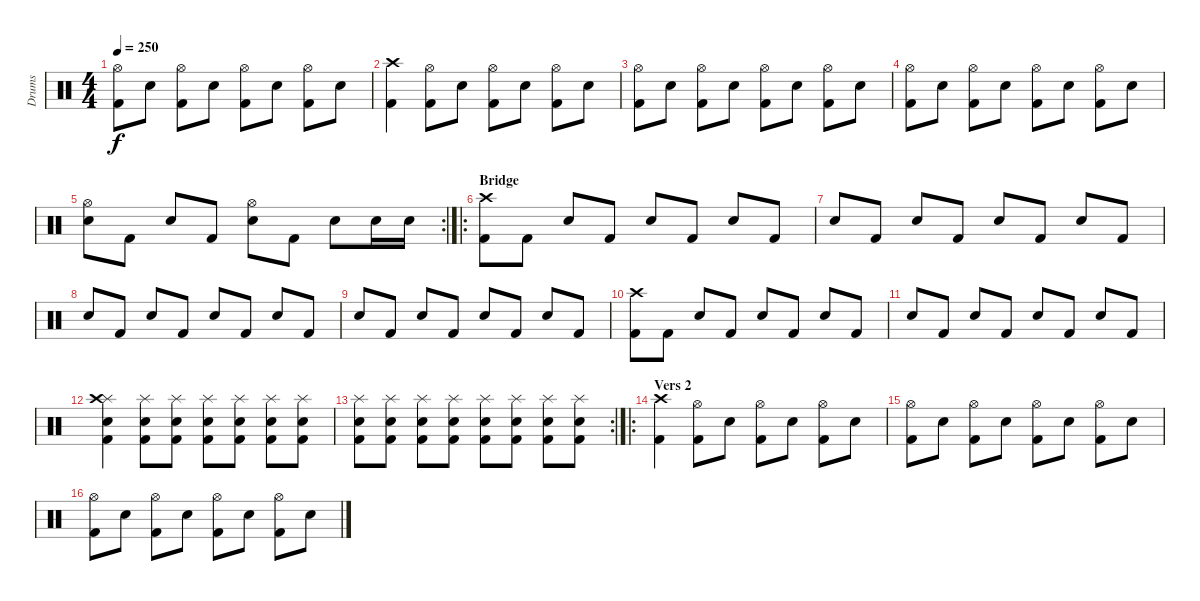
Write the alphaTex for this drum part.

\track ("Drums" "Drums") {instrument percussion}
\staff {score}
\articulation defaults
\ts (4 4)
\tempo 250
\clef neutral
\ks c
("Hi-Hat (open)" "Kick (hit) 2").8{dy f} "Snare (hit) 2".8 ("Hi-Hat (open)" "Kick (hit) 2").8 "Snare (hit) 2".8 ("Hi-Hat (open)" "Kick (hit) 2").8 "Snare (hit) 2".8 ("Hi-Hat (open)" "Kick (hit) 2").8 "Snare (hit) 2".8 |
("Crash high (hit)" "Kick (hit) 2").4 ("Hi-Hat (open)" "Kick (hit) 2").8 "Snare (hit) 2".8 ("Hi-Hat (open)" "Kick (hit) 2").8 "Snare (hit) 2".8 ("Hi-Hat (open)" "Kick (hit) 2").8 "Snare (hit) 2".8 |
("Hi-Hat (open)" "Kick (hit) 2").8 "Snare (hit) 2".8 ("Hi-Hat (open)" "Kick (hit) 2").8 "Snare (hit) 2".8 ("Hi-Hat (open)" "Kick (hit) 2").8 "Snare (hit) 2".8 ("Hi-Hat (open)" "Kick (hit) 2").8 "Snare (hit) 2".8 |
("Hi-Hat (open)" "Kick (hit) 2").8 "Snare (hit) 2".8 ("Hi-Hat (open)" "Kick (hit) 2").8 "Snare (hit) 2".8 ("Hi-Hat (open)" "Kick (hit) 2").8 "Snare (hit) 2".8 ("Hi-Hat (open)" "Kick (hit) 2").8 "Snare (hit) 2".8 |
\rc 2
("Hi-Hat (open)" "Snare (hit) 2").8 "Kick (hit) 2".8 "Snare (hit) 2".8 "Kick (hit) 2".8 ("Hi-Hat (open)" "Snare (hit) 2").8 "Kick (hit) 2".8 "Snare (hit) 2".8 "Snare (hit) 2".16 "Snare (hit) 2".16 |
\ro
\section ("" "Bridge")
("Kick (hit) 2" "Crash high (hit)").8 "Kick (hit) 2".8 "Snare (hit) 2".8 "Kick (hit) 2".8 "Snare (hit) 2".8 "Kick (hit) 2".8 "Snare (hit) 2".8 "Kick (hit) 2".8 |
"Snare (hit) 2".8 "Kick (hit) 2".8 "Snare (hit) 2".8 "Kick (hit) 2".8 "Snare (hit) 2".8 "Kick (hit) 2".8 "Snare (hit) 2".8 "Kick (hit) 2".8 |
"Snare (hit) 2".8 "Kick (hit) 2".8 "Snare (hit) 2".8 "Kick (hit) 2".8 "Snare (hit) 2".8 "Kick (hit) 2".8 "Snare (hit) 2".8 "Kick (hit) 2".8 |
"Snare (hit) 2".8 "Kick (hit) 2".8 "Snare (hit) 2".8 "Kick (hit) 2".8 "Snare (hit) 2".8 "Kick (hit) 2".8 "Snare (hit) 2".8 "Kick (hit) 2".8 |
("Kick (hit) 2" "Crash high (hit)").8 "Kick (hit) 2".8 "Snare (hit) 2".8 "Kick (hit) 2".8 "Snare (hit) 2".8 "Kick (hit) 2".8 "Snare (hit) 2".8 "Kick (hit) 2".8 |
"Snare (hit) 2".8 "Kick (hit) 2".8 "Snare (hit) 2".8 "Kick (hit) 2".8 "Snare (hit) 2".8 "Kick (hit) 2".8 "Snare (hit) 2".8 "Kick (hit) 2".8 |
("Splash (hit)" "Snare (hit) 2" "Kick (hit) 2" "Crash high (hit)").4 ("Splash (hit)" "Snare (hit) 2" "Kick (hit) 2").8 ("Splash (hit)" "Snare (hit) 2" "Kick (hit) 2").8 ("Splash (hit)" "Snare (hit) 2" "Kick (hit) 2").8 ("Splash (hit)" "Snare (hit) 2" "Kick (hit) 2").8 ("Splash (hit)" "Snare (hit) 2" "Kick (hit) 2").8 ("Splash (hit)" "Snare (hit) 2" "Kick (hit) 2").8 |
\rc 2
("Splash (hit)" "Snare (hit) 2" "Kick (hit) 2").8 ("Splash (hit)" "Snare (hit) 2" "Kick (hit) 2").8 ("Splash (hit)" "Snare (hit) 2" "Kick (hit) 2").8 ("Splash (hit)" "Snare (hit) 2" "Kick (hit) 2").8 ("Splash (hit)" "Snare (hit) 2" "Kick (hit) 2").8 ("Splash (hit)" "Snare (hit) 2" "Kick (hit) 2").8 ("Splash (hit)" "Snare (hit) 2" "Kick (hit) 2").8 ("Splash (hit)" "Snare (hit) 2" "Kick (hit) 2").8 |
\ro
\section ("" "Vers 2")
("Crash high (hit)" "Kick (hit) 2").4 ("Hi-Hat (open)" "Kick (hit) 2").8 "Snare (hit) 2".8 ("Hi-Hat (open)" "Kick (hit) 2").8 "Snare (hit) 2".8 ("Hi-Hat (open)" "Kick (hit) 2").8 "Snare (hit) 2".8 |
("Hi-Hat (open)" "Kick (hit) 2").8 "Snare (hit) 2".8 ("Hi-Hat (open)" "Kick (hit) 2").8 "Snare (hit) 2".8 ("Hi-Hat (open)" "Kick (hit) 2").8 "Snare (hit) 2".8 ("Hi-Hat (open)" "Kick (hit) 2").8 "Snare (hit) 2".8 |
("Hi-Hat (open)" "Kick (hit) 2").8 "Snare (hit) 2".8 ("Hi-Hat (open)" "Kick (hit) 2").8 "Snare (hit) 2".8 ("Hi-Hat (open)" "Kick (hit) 2").8 "Snare (hit) 2".8 ("Hi-Hat (open)" "Kick (hit) 2").8 "Snare (hit) 2".8
